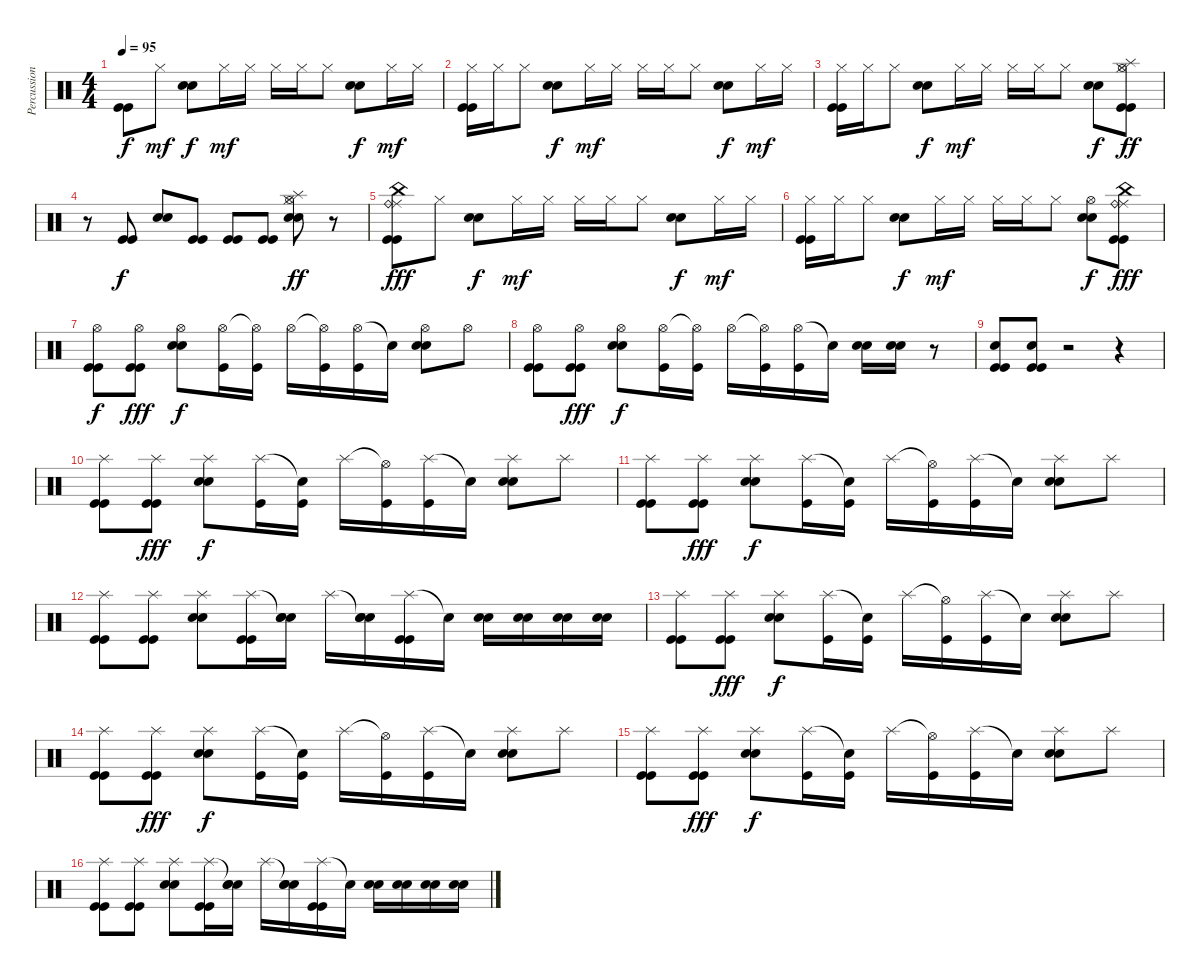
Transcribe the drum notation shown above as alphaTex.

\track ("Percussions" "Percussion") {instrument percussion}
\staff {score}
\articulation defaults
\ts (4 4)
\tempo 95
\clef neutral
\ks c
("Kick (hit)" "Kick (hit)").8{dy f} "Hi-Hat (closed)".8{dy mf} ("Electric Snare (hit)" "Electric Snare (hit)").8{dy f} "Hi-Hat (closed)".16{dy mf} "Hi-Hat (closed)".16 "Hi-Hat (closed)".16 "Hi-Hat (closed)".16 "Hi-Hat (closed)".8 ("Electric Snare (hit)" "Electric Snare (hit)").8{dy f} "Hi-Hat (closed)".16{dy mf} "Hi-Hat (closed)".16 |
("Hi-Hat (closed)" "Kick (hit)" "Kick (hit)").16 "Hi-Hat (closed)".16 "Hi-Hat (closed)".8 ("Electric Snare (hit)" "Electric Snare (hit)").8{dy f} "Hi-Hat (closed)".16{dy mf} "Hi-Hat (closed)".16 "Hi-Hat (closed)".16 "Hi-Hat (closed)".16 "Hi-Hat (closed)".8 ("Electric Snare (hit)" "Electric Snare (hit)").8{dy f} "Hi-Hat (closed)".16{dy mf} "Hi-Hat (closed)".16 |
("Hi-Hat (closed)" "Kick (hit)" "Kick (hit)").16 "Hi-Hat (closed)".16 "Hi-Hat (closed)".8 ("Electric Snare (hit)" "Electric Snare (hit)").8{dy f} "Hi-Hat (closed)".16{dy mf} "Hi-Hat (closed)".16 "Hi-Hat (closed)".16 "Hi-Hat (closed)".16 "Hi-Hat (closed)".8 ("Electric Snare (hit)" "Electric Snare (hit)").8{dy f} ("Hi-Hat (closed)" "Splash (hit)" "Hi-Hat (open)" "Kick (hit)" "Kick (hit)").8{dy ff} |
r.8 ("Kick (hit)" "Kick (hit)").8{dy f} ("Electric Snare (hit)" "Electric Snare (hit)").8 ("Kick (hit)" "Kick (hit)").8 ("Kick (hit)" "Kick (hit)").8 ("Kick (hit)" "Kick (hit)").8 ("Hi-Hat (closed)" "Splash (hit)" "Electric Snare (hit)" "Electric Snare (hit)" "Hi-Hat (open)").8{dy ff} r.8 |
("China (hit)" "Ride (middle)" "Ride (bell)" "Kick (hit)" "Kick (hit)").8{dy fff} "Hi-Hat (closed)".8 ("Electric Snare (hit)" "Electric Snare (hit)").8{dy f} "Hi-Hat (closed)".16{dy mf} "Hi-Hat (closed)".16 "Hi-Hat (closed)".16 "Hi-Hat (closed)".16 "Hi-Hat (closed)".8 ("Electric Snare (hit)" "Electric Snare (hit)").8{dy f} "Hi-Hat (closed)".16{dy mf} "Hi-Hat (closed)".16 |
("Hi-Hat (closed)" "Kick (hit)" "Kick (hit)").16 "Hi-Hat (closed)".16 "Hi-Hat (closed)".8 ("Electric Snare (hit)" "Electric Snare (hit)").8{dy f} "Hi-Hat (closed)".16{dy mf} "Hi-Hat (closed)".16 "Hi-Hat (closed)".16 "Hi-Hat (closed)".16 "Hi-Hat (closed)".8 ("Hi-Hat (open)" "Electric Snare (hit)" "Electric Snare (hit)").8{dy f} ("China (hit)" "Ride (middle)" "Ride (bell)" "Kick (hit)" "Kick (hit)").8{dy fff} |
("Hi-Hat (open)" "Kick (hit)" "Kick (hit)").8{dy f} ("Hi-Hat (open)" "Kick (hit)" "Kick (hit)").8{dy fff} ("Hi-Hat (open)" "Electric Snare (hit)" "Electric Snare (hit)").8{dy f} ("Hi-Hat (open)" "Kick (hit)").16 ("Hi-Hat (open)"{t} "Kick (hit)").16 "Hi-Hat (open)".16 ("Hi-Hat (open)"{t} "Kick (hit)").16 ("Hi-Hat (open)" "Kick (hit)").16 "Snare (hit)"{t}.16 ("Hi-Hat (open)" "Electric Snare (hit)" "Electric Snare (hit)").8 "Hi-Hat (open)".8 |
("Hi-Hat (open)" "Kick (hit)" "Kick (hit)").8 ("Hi-Hat (open)" "Kick (hit)" "Kick (hit)").8{dy fff} ("Hi-Hat (open)" "Electric Snare (hit)" "Electric Snare (hit)").8{dy f} ("Hi-Hat (open)" "Kick (hit)").16 ("Hi-Hat (open)"{t} "Kick (hit)").16 "Hi-Hat (open)".16 ("Hi-Hat (open)"{t} "Kick (hit)").16 ("Hi-Hat (open)" "Kick (hit)").16 "Snare (hit)"{t}.16 ("Electric Snare (hit)" "Electric Snare (hit)").16 ("Electric Snare (hit)" "Electric Snare (hit)").16 r.8 |
("Electric Snare (hit)" "Kick (hit)" "Kick (hit)").8 ("Electric Snare (hit)" "Kick (hit)" "Kick (hit)").8 r.2 r.4 |
("Splash (hit)" "Kick (hit)" "Kick (hit)").8 ("Splash (hit)" "Kick (hit)" "Kick (hit)").8{dy fff} ("Splash (hit)" "Electric Snare (hit)" "Electric Snare (hit)").8{dy f} ("Splash (hit)" "Kick (hit)").16 ("Snare (hit)"{t} "Kick (hit)").16 "Splash (hit)".16 ("Hi-Hat (open)"{t} "Kick (hit)").16 ("Splash (hit)" "Kick (hit)").16 "Snare (hit)"{t}.16 ("Splash (hit)" "Electric Snare (hit)" "Electric Snare (hit)").8 "Splash (hit)".8 |
("Splash (hit)" "Kick (hit)" "Kick (hit)").8 ("Splash (hit)" "Kick (hit)" "Kick (hit)").8{dy fff} ("Splash (hit)" "Electric Snare (hit)" "Electric Snare (hit)").8{dy f} ("Splash (hit)" "Kick (hit)").16 ("Snare (hit)"{t} "Kick (hit)").16 "Splash (hit)".16 ("Hi-Hat (open)"{t} "Kick (hit)").16 ("Splash (hit)" "Kick (hit)").16 "Snare (hit)"{t}.16 ("Splash (hit)" "Electric Snare (hit)" "Electric Snare (hit)").8 "Splash (hit)".8 |
("Splash (hit)" "Kick (hit)" "Kick (hit)").8 ("Splash (hit)" "Kick (hit)" "Kick (hit)").8 ("Splash (hit)" "Electric Snare (hit)" "Electric Snare (hit)").8 ("Splash (hit)" "Kick (hit)" "Kick (hit)").16 ("Snare (hit)"{t} "Electric Snare (hit)" "Electric Snare (hit)").16 "Splash (hit)".16 ("Snare (hit)"{t} "Electric Snare (hit)" "Electric Snare (hit)").16 ("Splash (hit)" "Kick (hit)" "Kick (hit)").16 "Snare (hit)"{t}.16 ("Electric Snare (hit)" "Electric Snare (hit)").16 ("Electric Snare (hit)" "Electric Snare (hit)").16 ("Electric Snare (hit)" "Electric Snare (hit)").16 ("Electric Snare (hit)" "Electric Snare (hit)").16 |
("Splash (hit)" "Kick (hit)" "Kick (hit)").8 ("Splash (hit)" "Kick (hit)" "Kick (hit)").8{dy fff} ("Splash (hit)" "Electric Snare (hit)" "Electric Snare (hit)").8{dy f} ("Splash (hit)" "Kick (hit)").16 ("Snare (hit)"{t} "Kick (hit)").16 "Splash (hit)".16 ("Hi-Hat (open)"{t} "Kick (hit)").16 ("Splash (hit)" "Kick (hit)").16 "Snare (hit)"{t}.16 ("Splash (hit)" "Electric Snare (hit)" "Electric Snare (hit)").8 "Splash (hit)".8 |
("Splash (hit)" "Kick (hit)" "Kick (hit)").8 ("Splash (hit)" "Kick (hit)" "Kick (hit)").8{dy fff} ("Splash (hit)" "Electric Snare (hit)" "Electric Snare (hit)").8{dy f} ("Splash (hit)" "Kick (hit)").16 ("Snare (hit)"{t} "Kick (hit)").16 "Splash (hit)".16 ("Hi-Hat (open)"{t} "Kick (hit)").16 ("Splash (hit)" "Kick (hit)").16 "Snare (hit)"{t}.16 ("Splash (hit)" "Electric Snare (hit)" "Electric Snare (hit)").8 "Splash (hit)".8 |
("Splash (hit)" "Kick (hit)" "Kick (hit)").8 ("Splash (hit)" "Kick (hit)" "Kick (hit)").8{dy fff} ("Splash (hit)" "Electric Snare (hit)" "Electric Snare (hit)").8{dy f} ("Splash (hit)" "Kick (hit)").16 ("Snare (hit)"{t} "Kick (hit)").16 "Splash (hit)".16 ("Hi-Hat (open)"{t} "Kick (hit)").16 ("Splash (hit)" "Kick (hit)").16 "Snare (hit)"{t}.16 ("Splash (hit)" "Electric Snare (hit)" "Electric Snare (hit)").8 "Splash (hit)".8 |
("Splash (hit)" "Kick (hit)" "Kick (hit)").8 ("Splash (hit)" "Kick (hit)" "Kick (hit)").8 ("Splash (hit)" "Electric Snare (hit)" "Electric Snare (hit)").8 ("Splash (hit)" "Kick (hit)" "Kick (hit)").16 ("Snare (hit)"{t} "Electric Snare (hit)" "Electric Snare (hit)").16 "Splash (hit)".16 ("Snare (hit)"{t} "Electric Snare (hit)" "Electric Snare (hit)").16 ("Splash (hit)" "Kick (hit)" "Kick (hit)").16 "Snare (hit)"{t}.16 ("Electric Snare (hit)" "Electric Snare (hit)").16 ("Electric Snare (hit)" "Electric Snare (hit)").16 ("Electric Snare (hit)" "Electric Snare (hit)").16 ("Electric Snare (hit)" "Electric Snare (hit)").16
